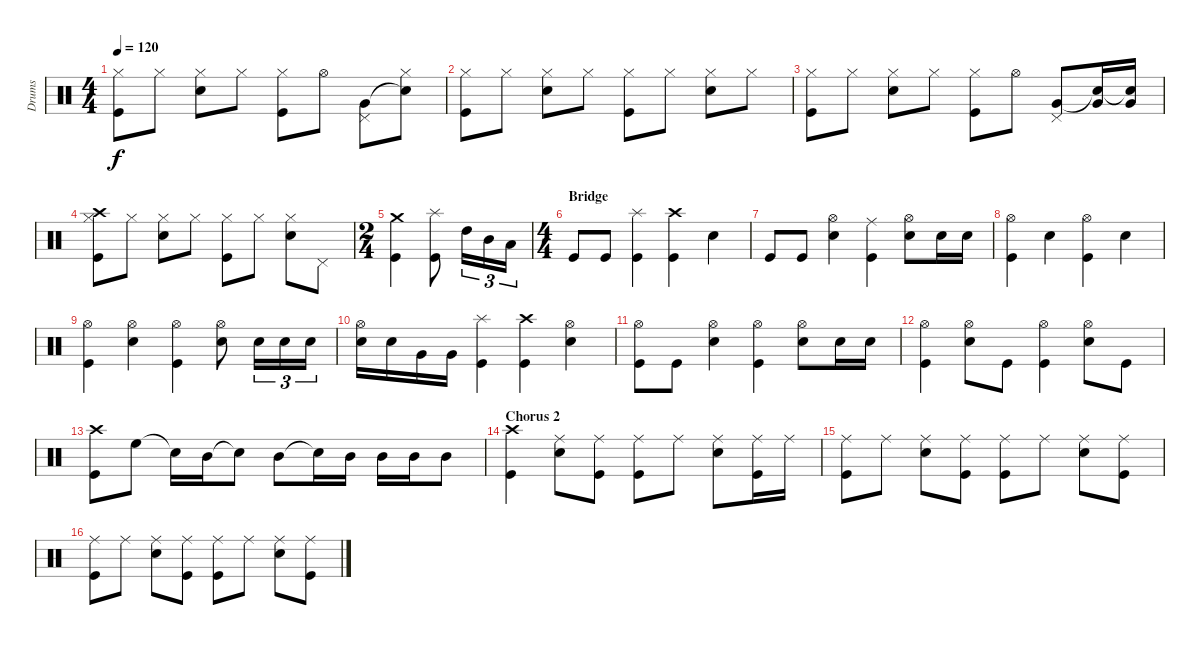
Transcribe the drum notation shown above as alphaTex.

\track ("Drums" "Drums") {instrument percussion}
\staff {score}
\articulation defaults
\ts (4 4)
\tempo 120
\clef neutral
\ks c
("Hi-Hat (closed)" "Kick (hit)").8{dy f} "Hi-Hat (closed)".8 ("Hi-Hat (closed)" "Snare (hit) 2").8 "Hi-Hat (closed)".8 ("Hi-Hat (closed)" "Kick (hit)").8 "Hi-Hat (open)".8 ("Pedal Hi-Hat (hit)" "Very Low Tom (hit)").8 ("Hi-Hat (closed)" "Snare (hit)"{t}).8 |
("Hi-Hat (closed)" "Kick (hit)").8 "Hi-Hat (closed)".8 ("Hi-Hat (closed)" "Snare (hit) 2").8 "Hi-Hat (closed)".8 ("Hi-Hat (closed)" "Kick (hit)").8 "Hi-Hat (closed)".8 ("Hi-Hat (closed)" "Snare (hit) 2").8 "Hi-Hat (closed)".8 |
("Hi-Hat (closed)" "Kick (hit)").8 "Hi-Hat (closed)".8 ("Hi-Hat (closed)" "Snare (hit) 2").8 "Hi-Hat (closed)".8 ("Hi-Hat (closed)" "Kick (hit)").8 "Hi-Hat (open)".8 ("Pedal Hi-Hat (hit)" "Very Low Tom (hit)").8 ("Very Low Tom (hit)" "Snare (hit)"{t}).16 ("Very Low Tom (hit)" "Snare (hit)"{t}).16 |
("Crash high (hit)" "Hi-Hat (closed)" "Kick (hit)").8 "Hi-Hat (closed)".8 ("Hi-Hat (closed)" "Snare (hit) 2").8 "Hi-Hat (closed)".8 ("Hi-Hat (closed)" "Kick (hit)").8 "Hi-Hat (closed)".8 ("Hi-Hat (closed)" "Snare (hit) 2").8 "Pedal Hi-Hat (hit)".8 |
\ts (2 4)
("Crash medium (hit)" "Kick (hit)").4 ("Splash (hit)" "Kick (hit)").8 "High Tom (hit)".16{tu (3 2)} "Mid Tom (hit)".16{tu (3 2)} "Low Tom (hit)".16{tu (3 2)} |
\ts (4 4)
\section ("" "Bridge")
"Kick (hit)".8 "Kick (hit)".8 ("Splash (hit)" "Kick (hit)").4 ("Crash high (hit)" "Kick (hit)").4 "Snare (hit) 2".4 |
"Kick (hit)".8 "Kick (hit)".8 ("Hi-Hat (open)" "Snare (hit) 2").4 ("Ride (middle)" "Kick (hit)").4 ("Hi-Hat (open)" "Snare (hit) 2").8 "Snare (hit) 2".16 "Snare (hit) 2".16 |
("Hi-Hat (open)" "Kick (hit)").4 "Snare (hit) 2".4 ("Hi-Hat (open)" "Kick (hit)").4 "Snare (hit) 2".4 |
("Hi-Hat (open)" "Kick (hit)").4 ("Hi-Hat (open)" "Snare (hit) 2").4 ("Hi-Hat (open)" "Kick (hit)").4 ("Hi-Hat (open)" "Snare (hit) 2").8 "Snare (hit) 2".16{tu (3 2)} "Snare (hit) 2".16{tu (3 2)} "Snare (hit) 2".16{tu (3 2)} |
("Hi-Hat (open)" "Snare (hit) 2").16 "Snare (hit) 2".16 "Very Low Tom (hit)".16 "Very Low Tom (hit)".16 ("Splash (hit)" "Kick (hit)").4 ("Crash high (hit)" "Kick (hit)").4 ("Hi-Hat (open)" "Snare (hit) 2").4 |
("Hi-Hat (open)" "Kick (hit)").8 "Kick (hit)".8 ("Hi-Hat (open)" "Snare (hit) 2").4 ("Hi-Hat (open)" "Kick (hit)").4 ("Hi-Hat (open)" "Snare (hit) 2").8 "Snare (hit) 2".16 "Snare (hit) 2".16 |
("Hi-Hat (open)" "Kick (hit)").4 ("Hi-Hat (open)" "Snare (hit) 2").8 "Kick (hit)".8 ("Hi-Hat (open)" "Kick (hit)").4 ("Hi-Hat (open)" "Snare (hit) 2").8 "Kick (hit)".8 |
("Crash high (hit)" "Kick (hit)").8 "High Floor Tom (hit)".8 "Snare (hit)"{t}.16 "Mid Tom (hit)".16 "Snare (hit)"{t}.8 "Mid Tom (hit)".8 "Snare (hit)"{t}.16 "Mid Tom (hit)".16 "Mid Tom (hit)".16 "Mid Tom (hit)".16 "Mid Tom (hit)".8 |
\section ("" "Chorus 2")
("Crash high (hit)" "Kick (hit)").4 ("Ride (middle)" "Snare (hit) 2").8 ("Ride (middle)" "Kick (hit)").8 ("Ride (middle)" "Kick (hit)").8 "Ride (middle)".8 ("Ride (middle)" "Snare (hit) 2").8 ("Ride (middle)" "Kick (hit)").16 "Ride (middle)".16 |
("Ride (middle)" "Kick (hit)").8 "Ride (middle)".8 ("Ride (middle)" "Snare (hit) 2").8 ("Ride (middle)" "Kick (hit)").8 ("Ride (middle)" "Kick (hit)").8 "Ride (middle)".8 ("Ride (middle)" "Snare (hit) 2").8 ("Ride (middle)" "Kick (hit)").8 |
("Ride (middle)" "Kick (hit)").8 "Ride (middle)".8 ("Ride (middle)" "Snare (hit) 2").8 ("Ride (middle)" "Kick (hit)").8 ("Ride (middle)" "Kick (hit)").8 "Ride (middle)".8 ("Ride (middle)" "Snare (hit) 2").8 ("Ride (middle)" "Kick (hit)").8
